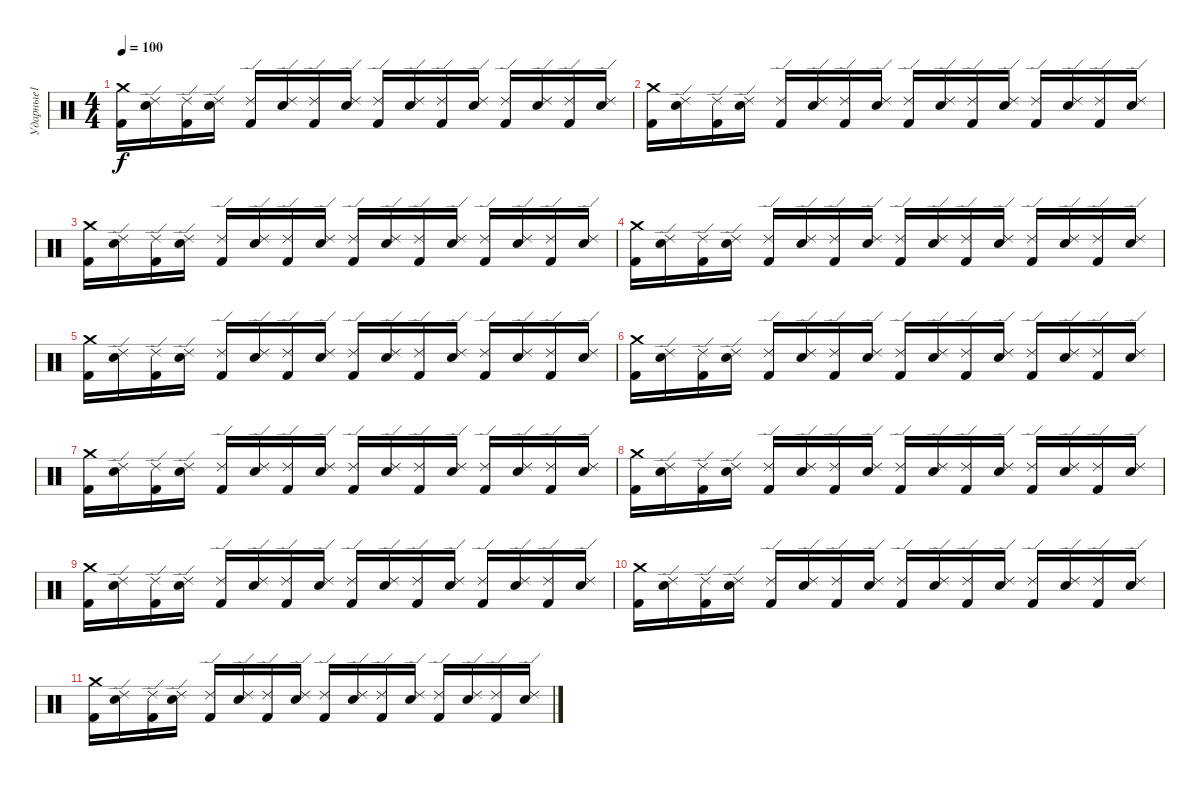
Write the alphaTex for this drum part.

\track ("Ударные1" "Ударные1") {instrument percussion}
\staff {score}
\articulation defaults
\ts (4 4)
\tempo 100
\clef neutral
\ks c
("Kick (hit) 2" "Crash medium (hit)").16{dy f} ("Snare (hit) 2" "Ride (edge) 2").16 ("Kick (hit) 2" "Ride (edge) 2").16 ("Snare (hit) 2" "Ride (edge) 2").16 ("Kick (hit) 2" "Ride (edge) 2").16 ("Snare (hit) 2" "Ride (edge) 2").16 ("Kick (hit) 2" "Ride (edge) 2").16 ("Snare (hit) 2" "Ride (edge) 2").16 ("Kick (hit) 2" "Ride (edge) 2").16 ("Snare (hit) 2" "Ride (edge) 2").16 ("Kick (hit) 2" "Ride (edge) 2").16 ("Snare (hit) 2" "Ride (edge) 2").16 ("Kick (hit) 2" "Ride (edge) 2").16 ("Snare (hit) 2" "Ride (edge) 2").16 ("Kick (hit) 2" "Ride (edge) 2").16 ("Snare (hit) 2" "Ride (edge) 2").16 |
("Kick (hit) 2" "Crash medium (hit)").16 ("Snare (hit) 2" "Ride (edge) 2").16 ("Kick (hit) 2" "Ride (edge) 2").16 ("Snare (hit) 2" "Ride (edge) 2").16 ("Kick (hit) 2" "Ride (edge) 2").16 ("Snare (hit) 2" "Ride (edge) 2").16 ("Kick (hit) 2" "Ride (edge) 2").16 ("Snare (hit) 2" "Ride (edge) 2").16 ("Kick (hit) 2" "Ride (edge) 2").16 ("Snare (hit) 2" "Ride (edge) 2").16 ("Kick (hit) 2" "Ride (edge) 2").16 ("Snare (hit) 2" "Ride (edge) 2").16 ("Kick (hit) 2" "Ride (edge) 2").16 ("Snare (hit) 2" "Ride (edge) 2").16 ("Kick (hit) 2" "Ride (edge) 2").16 ("Snare (hit) 2" "Ride (edge) 2").16 |
("Kick (hit) 2" "Crash medium (hit)").16 ("Snare (hit) 2" "Ride (edge) 2").16 ("Kick (hit) 2" "Ride (edge) 2").16 ("Snare (hit) 2" "Ride (edge) 2").16 ("Kick (hit) 2" "Ride (edge) 2").16 ("Snare (hit) 2" "Ride (edge) 2").16 ("Kick (hit) 2" "Ride (edge) 2").16 ("Snare (hit) 2" "Ride (edge) 2").16 ("Kick (hit) 2" "Ride (edge) 2").16 ("Snare (hit) 2" "Ride (edge) 2").16 ("Kick (hit) 2" "Ride (edge) 2").16 ("Snare (hit) 2" "Ride (edge) 2").16 ("Kick (hit) 2" "Ride (edge) 2").16 ("Snare (hit) 2" "Ride (edge) 2").16 ("Kick (hit) 2" "Ride (edge) 2").16 ("Snare (hit) 2" "Ride (edge) 2").16 |
("Kick (hit) 2" "Crash medium (hit)").16 ("Snare (hit) 2" "Ride (edge) 2").16 ("Kick (hit) 2" "Ride (edge) 2").16 ("Snare (hit) 2" "Ride (edge) 2").16 ("Kick (hit) 2" "Ride (edge) 2").16 ("Snare (hit) 2" "Ride (edge) 2").16 ("Kick (hit) 2" "Ride (edge) 2").16 ("Snare (hit) 2" "Ride (edge) 2").16 ("Kick (hit) 2" "Ride (edge) 2").16 ("Snare (hit) 2" "Ride (edge) 2").16 ("Kick (hit) 2" "Ride (edge) 2").16 ("Snare (hit) 2" "Ride (edge) 2").16 ("Kick (hit) 2" "Ride (edge) 2").16 ("Snare (hit) 2" "Ride (edge) 2").16 ("Kick (hit) 2" "Ride (edge) 2").16 ("Snare (hit) 2" "Ride (edge) 2").16 |
("Kick (hit) 2" "Crash medium (hit)").16 ("Snare (hit) 2" "Ride (edge) 2").16 ("Kick (hit) 2" "Ride (edge) 2").16 ("Snare (hit) 2" "Ride (edge) 2").16 ("Kick (hit) 2" "Ride (edge) 2").16 ("Snare (hit) 2" "Ride (edge) 2").16 ("Kick (hit) 2" "Ride (edge) 2").16 ("Snare (hit) 2" "Ride (edge) 2").16 ("Kick (hit) 2" "Ride (edge) 2").16 ("Snare (hit) 2" "Ride (edge) 2").16 ("Kick (hit) 2" "Ride (edge) 2").16 ("Snare (hit) 2" "Ride (edge) 2").16 ("Kick (hit) 2" "Ride (edge) 2").16 ("Snare (hit) 2" "Ride (edge) 2").16 ("Kick (hit) 2" "Ride (edge) 2").16 ("Snare (hit) 2" "Ride (edge) 2").16 |
("Kick (hit) 2" "Crash medium (hit)").16 ("Snare (hit) 2" "Ride (edge) 2").16 ("Kick (hit) 2" "Ride (edge) 2").16 ("Snare (hit) 2" "Ride (edge) 2").16 ("Kick (hit) 2" "Ride (edge) 2").16 ("Snare (hit) 2" "Ride (edge) 2").16 ("Kick (hit) 2" "Ride (edge) 2").16 ("Snare (hit) 2" "Ride (edge) 2").16 ("Kick (hit) 2" "Ride (edge) 2").16 ("Snare (hit) 2" "Ride (edge) 2").16 ("Kick (hit) 2" "Ride (edge) 2").16 ("Snare (hit) 2" "Ride (edge) 2").16 ("Kick (hit) 2" "Ride (edge) 2").16 ("Snare (hit) 2" "Ride (edge) 2").16 ("Kick (hit) 2" "Ride (edge) 2").16 ("Snare (hit) 2" "Ride (edge) 2").16 |
("Kick (hit) 2" "Crash medium (hit)").16 ("Snare (hit) 2" "Ride (edge) 2").16 ("Kick (hit) 2" "Ride (edge) 2").16 ("Snare (hit) 2" "Ride (edge) 2").16 ("Kick (hit) 2" "Ride (edge) 2").16 ("Snare (hit) 2" "Ride (edge) 2").16 ("Kick (hit) 2" "Ride (edge) 2").16 ("Snare (hit) 2" "Ride (edge) 2").16 ("Kick (hit) 2" "Ride (edge) 2").16 ("Snare (hit) 2" "Ride (edge) 2").16 ("Kick (hit) 2" "Ride (edge) 2").16 ("Snare (hit) 2" "Ride (edge) 2").16 ("Kick (hit) 2" "Ride (edge) 2").16 ("Snare (hit) 2" "Ride (edge) 2").16 ("Kick (hit) 2" "Ride (edge) 2").16 ("Snare (hit) 2" "Ride (edge) 2").16 |
("Kick (hit) 2" "Crash medium (hit)").16 ("Snare (hit) 2" "Ride (edge) 2").16 ("Kick (hit) 2" "Ride (edge) 2").16 ("Snare (hit) 2" "Ride (edge) 2").16 ("Kick (hit) 2" "Ride (edge) 2").16 ("Snare (hit) 2" "Ride (edge) 2").16 ("Kick (hit) 2" "Ride (edge) 2").16 ("Snare (hit) 2" "Ride (edge) 2").16 ("Kick (hit) 2" "Ride (edge) 2").16 ("Snare (hit) 2" "Ride (edge) 2").16 ("Kick (hit) 2" "Ride (edge) 2").16 ("Snare (hit) 2" "Ride (edge) 2").16 ("Kick (hit) 2" "Ride (edge) 2").16 ("Snare (hit) 2" "Ride (edge) 2").16 ("Kick (hit) 2" "Ride (edge) 2").16 ("Snare (hit) 2" "Ride (edge) 2").16 |
("Kick (hit) 2" "Crash medium (hit)").16 ("Snare (hit) 2" "Ride (edge) 2").16 ("Kick (hit) 2" "Ride (edge) 2").16 ("Snare (hit) 2" "Ride (edge) 2").16 ("Kick (hit) 2" "Ride (edge) 2").16 ("Snare (hit) 2" "Ride (edge) 2").16 ("Kick (hit) 2" "Ride (edge) 2").16 ("Snare (hit) 2" "Ride (edge) 2").16 ("Kick (hit) 2" "Ride (edge) 2").16 ("Snare (hit) 2" "Ride (edge) 2").16 ("Kick (hit) 2" "Ride (edge) 2").16 ("Snare (hit) 2" "Ride (edge) 2").16 ("Kick (hit) 2" "Ride (edge) 2").16 ("Snare (hit) 2" "Ride (edge) 2").16 ("Kick (hit) 2" "Ride (edge) 2").16 ("Snare (hit) 2" "Ride (edge) 2").16 |
("Kick (hit) 2" "Crash medium (hit)").16 ("Snare (hit) 2" "Ride (edge) 2").16 ("Kick (hit) 2" "Ride (edge) 2").16 ("Snare (hit) 2" "Ride (edge) 2").16 ("Kick (hit) 2" "Ride (edge) 2").16 ("Snare (hit) 2" "Ride (edge) 2").16 ("Kick (hit) 2" "Ride (edge) 2").16 ("Snare (hit) 2" "Ride (edge) 2").16 ("Kick (hit) 2" "Ride (edge) 2").16 ("Snare (hit) 2" "Ride (edge) 2").16 ("Kick (hit) 2" "Ride (edge) 2").16 ("Snare (hit) 2" "Ride (edge) 2").16 ("Kick (hit) 2" "Ride (edge) 2").16 ("Snare (hit) 2" "Ride (edge) 2").16 ("Kick (hit) 2" "Ride (edge) 2").16 ("Snare (hit) 2" "Ride (edge) 2").16 |
("Kick (hit) 2" "Crash medium (hit)").16 ("Snare (hit) 2" "Ride (edge) 2").16 ("Kick (hit) 2" "Ride (edge) 2").16 ("Snare (hit) 2" "Ride (edge) 2").16 ("Kick (hit) 2" "Ride (edge) 2").16 ("Snare (hit) 2" "Ride (edge) 2").16 ("Kick (hit) 2" "Ride (edge) 2").16 ("Snare (hit) 2" "Ride (edge) 2").16 ("Kick (hit) 2" "Ride (edge) 2").16 ("Snare (hit) 2" "Ride (edge) 2").16 ("Kick (hit) 2" "Ride (edge) 2").16 ("Snare (hit) 2" "Ride (edge) 2").16 ("Kick (hit) 2" "Ride (edge) 2").16 ("Snare (hit) 2" "Ride (edge) 2").16 ("Kick (hit) 2" "Ride (edge) 2").16 ("Snare (hit) 2" "Ride (edge) 2").16
